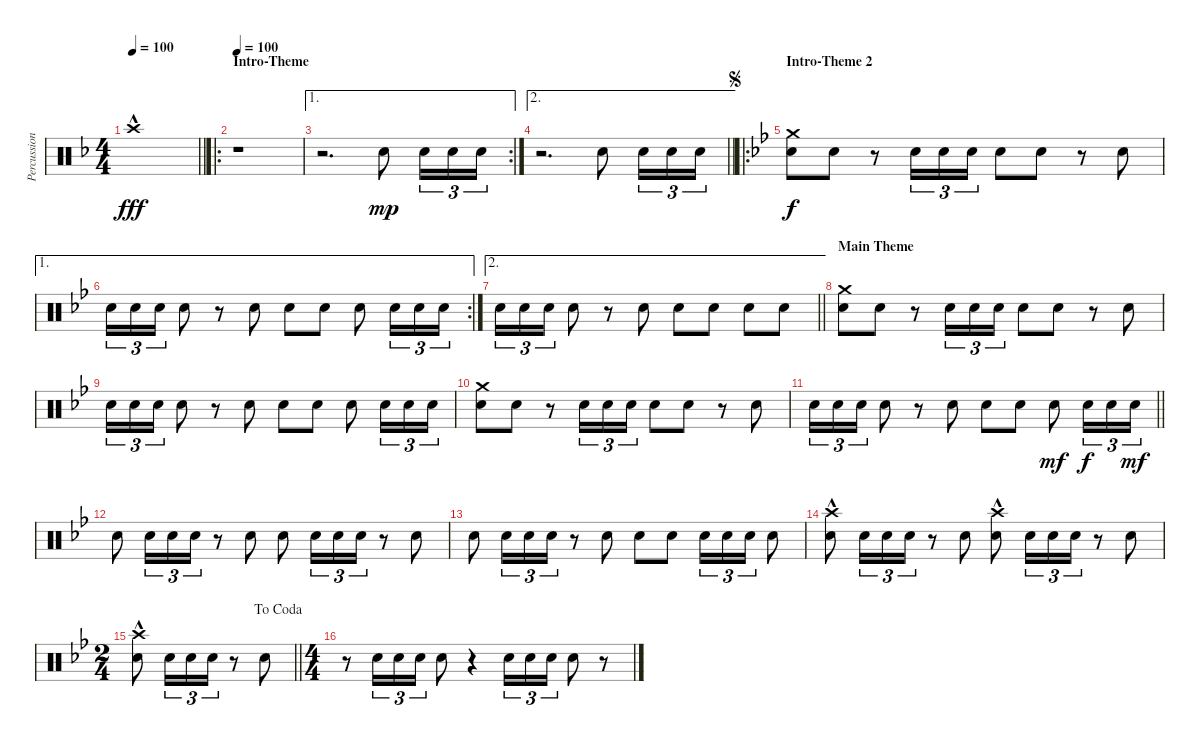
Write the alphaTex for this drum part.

\track ("Percussion" "Percussion") {instrument percussion}
\staff {score}
\articulation defaults
\ts (4 4)
\tempo 100
\clef neutral
\barLineRight lightlight
\ks dminor "Crash high (hit)"{hac}.1{dy fff}
|
\ro
\section ("" "Intro-Theme")
\tempo 100
r.1{volume 9} |
\ae 1
\rc 2
r.2{d} "Snare (hit) 2".8{dy mp} "Snare (hit) 2".16{tu (3 2)} "Snare (hit) 2".16{tu (3 2)} "Snare (hit) 2".16{tu (3 2)} |
\ae 2
\barLineRight lightlight
r.2{d} "Snare (hit) 2".8 "Snare (hit) 2".16{tu (3 2)} "Snare (hit) 2".16{tu (3 2)} "Snare (hit) 2".16{tu (3 2)} |
\ro
\section ("" "Intro-Theme 2")
\jump segno
\ks bb
("Crash medium (hit)" "Snare (hit) 2").8{dy f} "Snare (hit) 2".8 r.8 "Snare (hit) 2".16{tu (3 2)} "Snare (hit) 2".16{tu (3 2)} "Snare (hit) 2".16{tu (3 2)} "Snare (hit) 2".8 "Snare (hit) 2".8 r.8 "Snare (hit) 2".8 |
\ae 1
\rc 2 "Snare (hit) 2".16{tu (3 2)} "Snare (hit) 2".16{tu (3 2)} "Snare (hit) 2".16{tu (3 2)} "Snare (hit) 2".8
r.8 "Snare (hit) 2".8 "Snare (hit) 2".8 "Snare (hit) 2".8 "Snare (hit) 2".8 "Snare (hit) 2".16{tu (3 2)} "Snare (hit) 2".16{tu (3 2)} "Snare (hit) 2".16{tu (3 2)} |
\ae 2
\barLineRight lightlight "Snare (hit) 2".16{tu (3 2)} "Snare (hit) 2".16{tu (3 2)} "Snare (hit) 2".16{tu (3 2)} "Snare (hit) 2".8
r.8 "Snare (hit) 2".8 "Snare (hit) 2".8 "Snare (hit) 2".8 "Snare (hit) 2".8 "Snare (hit) 2".8 |
\section ("" "Main Theme")
("Crash medium (hit)" "Snare (hit) 2").8 "Snare (hit) 2".8 r.8 "Snare (hit) 2".16{tu (3 2)} "Snare (hit) 2".16{tu (3 2)} "Snare (hit) 2".16{tu (3 2)} "Snare (hit) 2".8 "Snare (hit) 2".8 r.8 "Snare (hit) 2".8 |
"Snare (hit) 2".16{tu (3 2)} "Snare (hit) 2".16{tu (3 2)} "Snare (hit) 2".16{tu (3 2)} "Snare (hit) 2".8 r.8 "Snare (hit) 2".8 "Snare (hit) 2".8 "Snare (hit) 2".8 "Snare (hit) 2".8 "Snare (hit) 2".16{tu (3 2)} "Snare (hit) 2".16{tu (3 2)} "Snare (hit) 2".16{tu (3 2)} |
("Crash medium (hit)" "Snare (hit) 2").8 "Snare (hit) 2".8 r.8 "Snare (hit) 2".16{tu (3 2)} "Snare (hit) 2".16{tu (3 2)} "Snare (hit) 2".16{tu (3 2)} "Snare (hit) 2".8 "Snare (hit) 2".8 r.8 "Snare (hit) 2".8 |
\barLineRight lightlight "Snare (hit) 2".16{tu (3 2)} "Snare (hit) 2".16{tu (3 2)} "Snare (hit) 2".16{tu (3 2)} "Snare (hit) 2".8
r.8 "Snare (hit) 2".8 "Snare (hit) 2".8 "Snare (hit) 2".8 "Snare (hit) 2".8{dy mf} "Snare (hit) 2".16{tu (3 2) dy f} "Snare (hit) 2".16{tu (3 2)} "Snare (hit) 2".16{tu (3 2) dy mf} |
\section ("" "")
"Snare (hit) 2".8 "Snare (hit) 2".16{tu (3 2)} "Snare (hit) 2".16{tu (3 2)} "Snare (hit) 2".16{tu (3 2)} r.8 "Snare (hit) 2".8 "Snare (hit) 2".8 "Snare (hit) 2".16{tu (3 2)} "Snare (hit) 2".16{tu (3 2)} "Snare (hit) 2".16{tu (3 2)} r.8 "Snare (hit) 2".8 |
"Snare (hit) 2".8 "Snare (hit) 2".16{tu (3 2)} "Snare (hit) 2".16{tu (3 2)} "Snare (hit) 2".16{tu (3 2)} r.8 "Snare (hit) 2".8 "Snare (hit) 2".8 "Snare (hit) 2".8 "Snare (hit) 2".16{tu (3 2)} "Snare (hit) 2".16{tu (3 2)} "Snare (hit) 2".16{tu (3 2)} "Snare (hit) 2".8 |
("Crash high (hit)"{hac} "Snare (hit) 2").8 "Snare (hit) 2".16{tu (3 2)} "Snare (hit) 2".16{tu (3 2)} "Snare (hit) 2".16{tu (3 2)} r.8 "Snare (hit) 2".8 ("Crash high (hit)"{hac} "Snare (hit) 2").8 "Snare (hit) 2".16{tu (3 2)} "Snare (hit) 2".16{tu (3 2)} "Snare (hit) 2".16{tu (3 2)} r.8 "Snare (hit) 2".8 |
\ts (2 4)
\jump dacoda
\barLineRight lightlight
("Crash high (hit)"{hac} "Snare (hit) 2").8 "Snare (hit) 2".16{tu (3 2)} "Snare (hit) 2".16{tu (3 2)} "Snare (hit) 2".16{tu (3 2)} r.8 "Snare (hit) 2".8 |
\ts (4 4)
\section ("" "")
r.8 "Snare (hit) 2".16{tu (3 2)} "Snare (hit) 2".16{tu (3 2)} "Snare (hit) 2".16{tu (3 2)} "Snare (hit) 2".8 r.4 "Snare (hit) 2".16{tu (3 2)} "Snare (hit) 2".16{tu (3 2)} "Snare (hit) 2".16{tu (3 2)} "Snare (hit) 2".8 r.8
